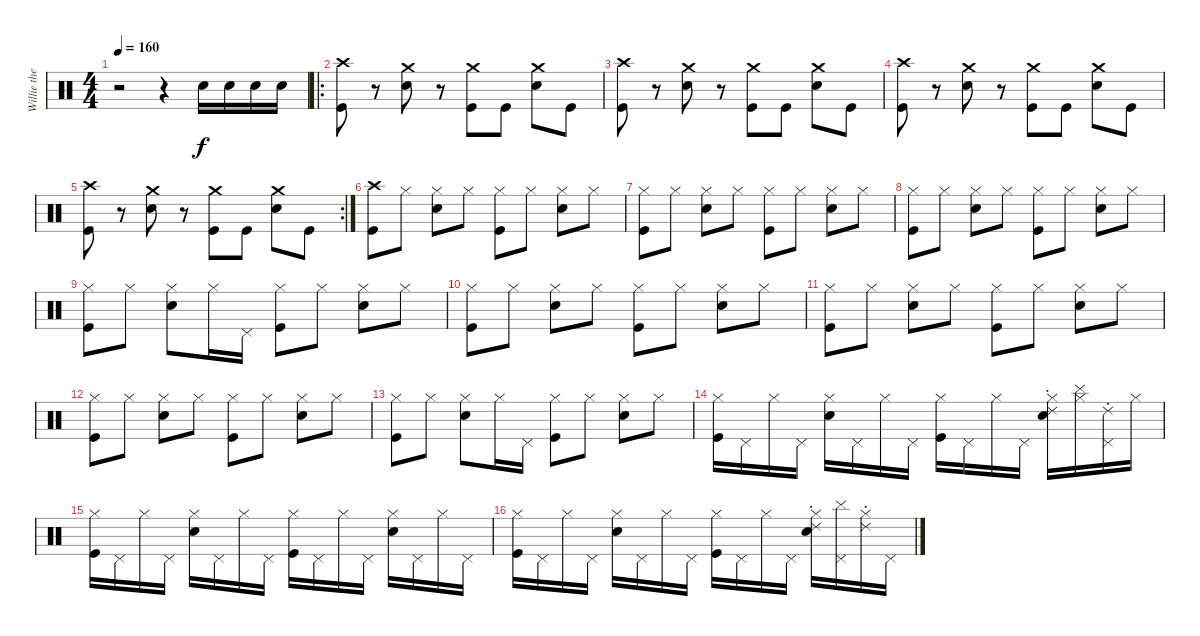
\track ("Willie the new guy" "Willie the") {instrument percussion}
\staff {score}
\articulation defaults
\ts (4 4)
\tempo 160
\clef neutral
\ks c
r.2{dy f} r.4 "Snare (hit) 2".16 "Snare (hit) 2".16 "Snare (hit) 2".16 "Snare (hit) 2".16 |
\ro
("Crash high (hit)" "Kick (hit)").8 r.8 ("Crash medium (hit)" "Snare (hit) 2").8 r.8 ("Crash medium (hit)" "Kick (hit)").8 "Kick (hit)".8 ("Crash medium (hit)" "Snare (hit) 2").8 "Kick (hit)".8 |
("Crash high (hit)" "Kick (hit)").8 r.8 ("Crash medium (hit)" "Snare (hit) 2").8 r.8 ("Crash medium (hit)" "Kick (hit)").8 "Kick (hit)".8 ("Crash medium (hit)" "Snare (hit) 2").8 "Kick (hit)".8 |
("Crash high (hit)" "Kick (hit)").8 r.8 ("Crash medium (hit)" "Snare (hit) 2").8 r.8 ("Crash medium (hit)" "Kick (hit)").8 "Kick (hit)".8 ("Crash medium (hit)" "Snare (hit) 2").8 "Kick (hit)".8 |
\rc 2
("Crash high (hit)" "Kick (hit)").8 r.8 ("Crash medium (hit)" "Snare (hit) 2").8 r.8 ("Crash medium (hit)" "Kick (hit)").8 "Kick (hit)".8 ("Crash medium (hit)" "Snare (hit) 2").8 "Kick (hit)".8 |
("Crash high (hit)" "Kick (hit)").8 "Hi-Hat (closed)".8 ("Hi-Hat (closed)" "Snare (hit) 2").8 "Hi-Hat (closed)".8 ("Hi-Hat (closed)" "Kick (hit)").8 "Hi-Hat (closed)".8 ("Hi-Hat (closed)" "Snare (hit) 2").8 "Hi-Hat (closed)".8 |
("Hi-Hat (closed)" "Kick (hit)").8 "Hi-Hat (closed)".8 ("Hi-Hat (closed)" "Snare (hit) 2").8 "Hi-Hat (closed)".8 ("Hi-Hat (closed)" "Kick (hit)").8 "Hi-Hat (closed)".8 ("Hi-Hat (closed)" "Snare (hit) 2").8 "Hi-Hat (closed)".8 |
("Hi-Hat (closed)" "Kick (hit)").8 "Hi-Hat (closed)".8 ("Hi-Hat (closed)" "Snare (hit) 2").8 "Hi-Hat (closed)".8 ("Hi-Hat (closed)" "Kick (hit)").8 "Hi-Hat (closed)".8 ("Hi-Hat (closed)" "Snare (hit) 2").8 "Hi-Hat (closed)".8 |
("Hi-Hat (closed)" "Kick (hit)").8 "Hi-Hat (closed)".8 ("Hi-Hat (closed)" "Snare (hit) 2").8 "Hi-Hat (closed)".16 "Pedal Hi-Hat (hit)".16 ("Hi-Hat (closed)" "Kick (hit)").8 "Hi-Hat (closed)".8 ("Hi-Hat (closed)" "Snare (hit) 2").8 "Hi-Hat (closed)".8 |
("Hi-Hat (closed)" "Kick (hit)").8 "Hi-Hat (closed)".8 ("Hi-Hat (closed)" "Snare (hit) 2").8 "Hi-Hat (closed)".8 ("Hi-Hat (closed)" "Kick (hit)").8 "Hi-Hat (closed)".8 ("Hi-Hat (closed)" "Snare (hit) 2").8 "Hi-Hat (closed)".8 |
("Hi-Hat (closed)" "Kick (hit)").8 "Hi-Hat (closed)".8 ("Hi-Hat (closed)" "Snare (hit) 2").8 "Hi-Hat (closed)".8 ("Hi-Hat (closed)" "Kick (hit)").8 "Hi-Hat (closed)".8 ("Hi-Hat (closed)" "Snare (hit) 2").8 "Hi-Hat (closed)".8 |
("Hi-Hat (closed)" "Kick (hit)").8 "Hi-Hat (closed)".8 ("Hi-Hat (closed)" "Snare (hit) 2").8 "Hi-Hat (closed)".8 ("Hi-Hat (closed)" "Kick (hit)").8 "Hi-Hat (closed)".8 ("Hi-Hat (closed)" "Snare (hit) 2").8 "Hi-Hat (closed)".8 |
("Hi-Hat (closed)" "Kick (hit)").8 "Hi-Hat (closed)".8 ("Hi-Hat (closed)" "Snare (hit) 2").8 "Hi-Hat (closed)".16 "Pedal Hi-Hat (hit)".16 ("Hi-Hat (closed)" "Kick (hit)").8 "Hi-Hat (closed)".8 ("Hi-Hat (closed)" "Snare (hit) 2").8 "Hi-Hat (closed)".8 |
("Hi-Hat (closed)" "Kick (hit)").16 "Pedal Hi-Hat (hit)".16 "Hi-Hat (closed)".16 "Pedal Hi-Hat (hit)".16 ("Hi-Hat (closed)" "Snare (hit) 2").16 "Pedal Hi-Hat (hit)".16 "Hi-Hat (closed)".16 "Pedal Hi-Hat (hit)".16 ("Hi-Hat (closed)" "Kick (hit)").16 "Pedal Hi-Hat (hit)".16 "Hi-Hat (closed)".16 "Pedal Hi-Hat (hit)".16 ("Hi-Hat (closed)" "Snare (hit) 2" "Ride (choke) 2").16 ("Hi-Hat (closed)" "Cymbal (hit)").16 ("Pedal Hi-Hat (hit)" "Ride (choke) 2").16 "Hi-Hat (closed)".16 |
("Hi-Hat (closed)" "Kick (hit)").16 "Pedal Hi-Hat (hit)".16 "Hi-Hat (closed)".16 "Pedal Hi-Hat (hit)".16 ("Hi-Hat (closed)" "Snare (hit) 2").16 "Pedal Hi-Hat (hit)".16 "Hi-Hat (closed)".16 "Pedal Hi-Hat (hit)".16 ("Hi-Hat (closed)" "Kick (hit)").16 "Pedal Hi-Hat (hit)".16 "Hi-Hat (closed)".16 "Pedal Hi-Hat (hit)".16 ("Hi-Hat (closed)" "Snare (hit) 2").16 "Pedal Hi-Hat (hit)".16 "Hi-Hat (closed)".16 "Pedal Hi-Hat (hit)".16 |
("Hi-Hat (closed)" "Kick (hit)").16 "Pedal Hi-Hat (hit)".16 "Hi-Hat (closed)".16 "Pedal Hi-Hat (hit)".16 ("Hi-Hat (closed)" "Snare (hit) 2").16 "Pedal Hi-Hat (hit)".16 "Hi-Hat (closed)".16 "Pedal Hi-Hat (hit)".16 ("Hi-Hat (closed)" "Kick (hit)").16 "Pedal Hi-Hat (hit)".16 "Hi-Hat (closed)".16 "Pedal Hi-Hat (hit)".16 ("Hi-Hat (closed)" "Snare (hit) 2" "Ride (choke) 2").16 ("Pedal Hi-Hat (hit)" "Cymbal (hit)").16 ("Hi-Hat (closed)" "Ride (choke) 2").16 "Pedal Hi-Hat (hit)".16
